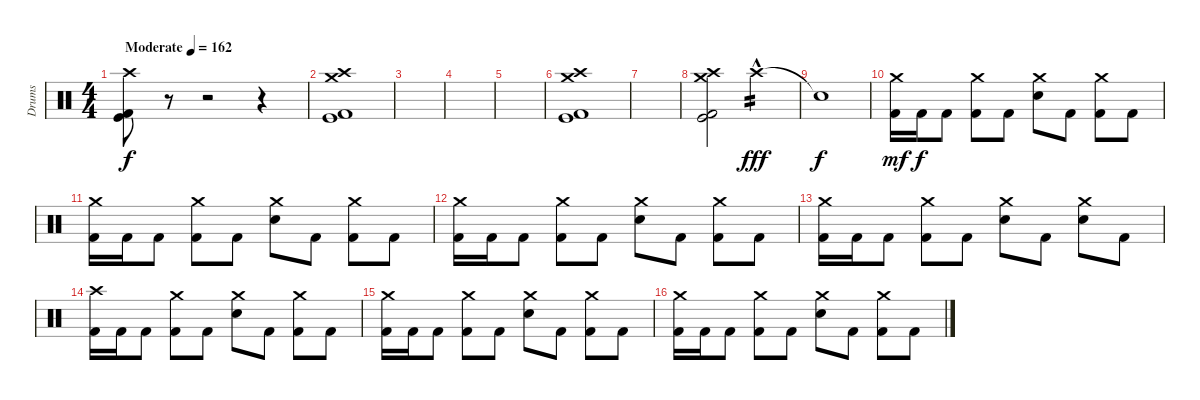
\track ("Drums" "Drums") {instrument percussion}
\staff {score}
\articulation defaults
\ts (4 4)
\tempo (162 "Moderate")
\clef neutral
\ks c
("Crash high (hit)" "Kick (hit)" "Kick (hit) 2").8{dy f} r.8{volume 0} r.2 r.4 |
("Crash medium (hit)" "Crash high (hit)" "Kick (hit)" "Kick (hit) 2").1{volume 13} |
|
|
|
("Crash medium (hit)" "Crash high (hit)" "Kick (hit)" "Kick (hit) 2").1 |
|
("Crash medium (hit)" "Crash high (hit)" "Kick (hit)" "Kick (hit) 2").2{volume 7} "Crash high (hit)"{hac}.2{tp 2 dy fff volume 13} |
"Snare (hit)"{t}.1{dy f} |
("Crash medium (hit)" "Kick (hit) 2").16{dy mf} "Kick (hit) 2".16{dy f} "Kick (hit) 2".8 ("Crash medium (hit)" "Kick (hit) 2").8 "Kick (hit) 2".8 ("Crash medium (hit)" "Electric Snare (hit)").8 "Kick (hit) 2".8 ("Crash medium (hit)" "Kick (hit) 2").8 "Kick (hit) 2".8 |
("Crash medium (hit)" "Kick (hit) 2").16 "Kick (hit) 2".16 "Kick (hit) 2".8 ("Crash medium (hit)" "Kick (hit) 2").8 "Kick (hit) 2".8 ("Crash medium (hit)" "Electric Snare (hit)").8 "Kick (hit) 2".8 ("Crash medium (hit)" "Kick (hit) 2").8 "Kick (hit) 2".8 |
("Crash medium (hit)" "Kick (hit) 2").16 "Kick (hit) 2".16 "Kick (hit) 2".8 ("Crash medium (hit)" "Kick (hit) 2").8 "Kick (hit) 2".8 ("Crash medium (hit)" "Electric Snare (hit)").8 "Kick (hit) 2".8 ("Crash medium (hit)" "Kick (hit) 2").8 "Kick (hit) 2".8 |
("Crash medium (hit)" "Kick (hit) 2").16 "Kick (hit) 2".16 "Kick (hit) 2".8 ("Crash medium (hit)" "Kick (hit) 2").8 "Kick (hit) 2".8 ("Crash medium (hit)" "Electric Snare (hit)").8 "Kick (hit) 2".8 ("Crash medium (hit)" "Electric Snare (hit)").8 "Kick (hit) 2".8 |
("Crash high (hit)" "Kick (hit) 2").16 "Kick (hit) 2".16 "Kick (hit) 2".8 ("Crash medium (hit)" "Kick (hit) 2").8 "Kick (hit) 2".8 ("Crash medium (hit)" "Electric Snare (hit)").8 "Kick (hit) 2".8 ("Crash medium (hit)" "Kick (hit) 2").8 "Kick (hit) 2".8 |
("Crash medium (hit)" "Kick (hit) 2").16 "Kick (hit) 2".16 "Kick (hit) 2".8 ("Crash medium (hit)" "Kick (hit) 2").8 "Kick (hit) 2".8 ("Crash medium (hit)" "Electric Snare (hit)").8 "Kick (hit) 2".8 ("Crash medium (hit)" "Kick (hit) 2").8 "Kick (hit) 2".8 |
("Crash medium (hit)" "Kick (hit) 2").16 "Kick (hit) 2".16 "Kick (hit) 2".8 ("Crash medium (hit)" "Kick (hit) 2").8 "Kick (hit) 2".8 ("Crash medium (hit)" "Electric Snare (hit)").8 "Kick (hit) 2".8 ("Crash medium (hit)" "Kick (hit) 2").8 "Kick (hit) 2".8
